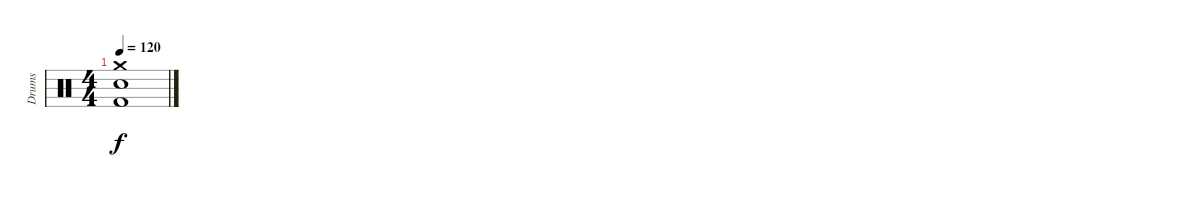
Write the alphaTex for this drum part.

\track ("Drums" "Drums") {instrument percussion}
\staff {score}
\articulation defaults
\ts (4 4)
\tempo 120
\clef neutral
\ks c
("Crash medium (hit)" "Electric Snare (hit)" "Kick (hit) 2").1{dy f}
